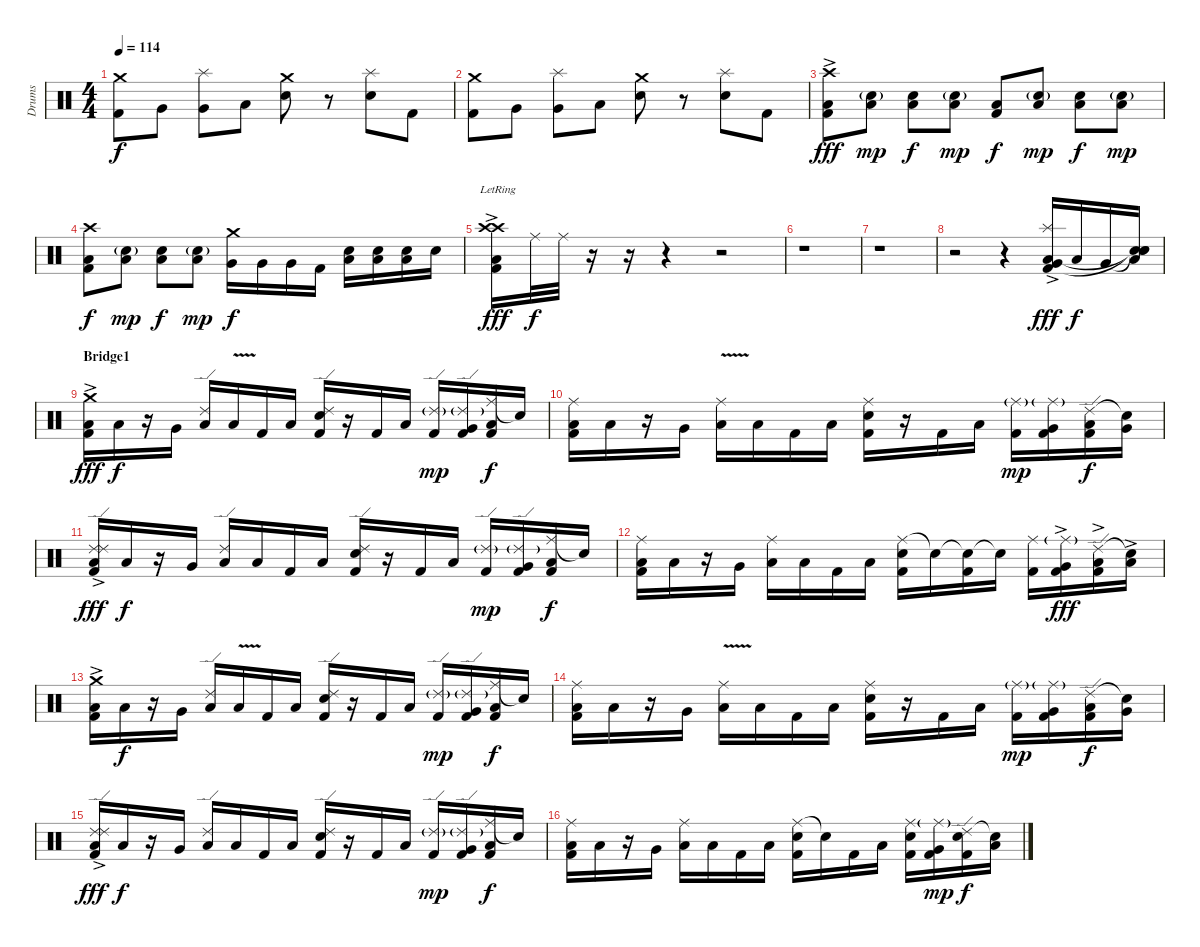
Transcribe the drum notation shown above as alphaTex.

\track ("Drums" "Drums") {instrument percussion}
\staff {score}
\articulation defaults
\ts (4 4)
\tempo 114
\clef neutral
\ks c
("Crash medium (hit)" "Kick (hit) 2").8{dy f} "Very Low Tom (hit)".8 ("Splash (hit)" "Very Low Tom (hit)").8 "Low Floor Tom (hit)".8 ("Crash medium (hit)" "Electric Snare (hit)").8 r.8 ("Splash (hit)" "Electric Snare (hit)").8 "Kick (hit) 2".8 |
("Crash medium (hit)" "Kick (hit) 2").8 "Very Low Tom (hit)".8 ("Splash (hit)" "Very Low Tom (hit)").8 "Low Floor Tom (hit)".8 ("Crash medium (hit)" "Electric Snare (hit)").8 r.8 ("Splash (hit)" "Electric Snare (hit)").8 "Kick (hit) 2".8 |
("Crash high (hit)"{ac} "Kick (hit) 2" "Low Floor Tom (hit)").8{dy fff} ("Snare (hit) 2"{g} "Low Floor Tom (hit)").8{dy mp} ("Snare (hit) 2" "Low Floor Tom (hit)").8{dy f} ("Snare (hit) 2"{g} "Low Floor Tom (hit)").8{dy mp} ("Kick (hit) 2" "Low Floor Tom (hit)").8{dy f} ("Snare (hit) 2"{g} "Low Floor Tom (hit)").8{dy mp} ("Snare (hit) 2" "Low Floor Tom (hit)").8{dy f} ("Snare (hit) 2"{g} "Low Floor Tom (hit)").8{dy mp} |
("Crash high (hit)" "Kick (hit) 2" "Low Floor Tom (hit)").8{dy f} ("Snare (hit) 2"{g} "Low Floor Tom (hit)").8{dy mp} ("Snare (hit) 2" "Low Floor Tom (hit)").8{dy f} ("Snare (hit) 2"{g} "Low Floor Tom (hit)").8{dy mp} ("Crash medium (hit)" "Very Low Tom (hit)").16{dy f} "Very Low Tom (hit)".16 "Very Low Tom (hit)".16 "Kick (hit) 2".16 ("Snare (hit) 2" "Low Floor Tom (hit)").16 ("Snare (hit) 2" "Low Floor Tom (hit)").16 ("Snare (hit) 2" "Low Floor Tom (hit)").16 "Snare (hit) 2".16 |
("Crash high (hit)"{ac lr} "Crash high (hit)"{ac lr} "Low Floor Tom (hit)"{ac lr} "Kick (hit) 2"{ac lr}).16{dy fff} "Ride (middle)".32{dy f} "Ride (middle)".32 r.16 r.16 r.4 r.2 |
r.1 |
r.1 |
r.2 r.4 ("Splash (hit)" "Very Low Tom (hit)"{ac} "Low Floor Tom (hit)"{ac} "Kick (hit) 2"{ac}).16{dy fff} "Low Floor Tom (hit)".16{dy f} "Very Low Tom (hit)".16 ("Snare (hit)"{t} "Low Tom (hit)" "Snare (hit)"{t} "Snare (hit)"{t}).16 |
\section ("" "Bridge1")
("Crash medium (hit)"{ac} "Low Floor Tom (hit)"{ac} "Kick (hit) 2"{ac}).16{dy fff} "Low Floor Tom (hit)".16{dy f} r.16 "Very Low Tom (hit)".16 ("Ride (edge) 2" "Low Floor Tom (hit)").16 "Low Floor Tom (hit)"{v}.16 "Kick (hit) 2".16 "Low Tom (hit)".16 ("Ride (edge) 2" "Electric Snare (hit)" "Kick (hit) 2").16 r.16 "Kick (hit) 2".16 "Low Floor Tom (hit)".16 ("Ride (edge) 2"{g} "Kick (hit) 2").16{dy mp} ("Ride (edge) 2"{g} "Very Low Tom (hit)" "Kick (hit) 2").16 ("Ride (middle)" "Low Tom (hit)" "Kick (hit) 2").16{dy f} "Snare (hit)"{t}.16 |
("Ride (middle)" "Low Floor Tom (hit)" "Kick (hit) 2").16 "Low Floor Tom (hit)".16 r.16 "Very Low Tom (hit)".16 ("Ride (middle)"{v} "Low Floor Tom (hit)").16 "Low Floor Tom (hit)".16 "Kick (hit) 2".16 "Low Tom (hit)".16 ("Ride (middle)" "Electric Snare (hit)" "Kick (hit) 2").16 r.16 "Kick (hit) 2".16 "Low Floor Tom (hit)".16 ("Ride (middle)"{g} "Kick (hit) 2").16{dy mp} ("Ride (middle)"{g} "Very Low Tom (hit)" "Kick (hit) 2").16 ("Ride (edge) 2" "Low Tom (hit)" "Kick (hit) 2").16{dy f} ("Snare (hit)"{t} "Very Low Tom (hit)").16 |
("Ride (edge) 2" "Ride (edge) 2"{ac} "Low Floor Tom (hit)" "Kick (hit) 2"{ac}).16{dy fff} "Low Floor Tom (hit)".16{dy f} r.16 "Very Low Tom (hit)".16 ("Ride (edge) 2" "Low Floor Tom (hit)").16 "Low Floor Tom (hit)".16 "Kick (hit) 2".16 "Low Tom (hit)".16 ("Ride (edge) 2" "Electric Snare (hit)" "Kick (hit) 2").16 r.16 "Kick (hit) 2".16 "Low Floor Tom (hit)".16 ("Ride (edge) 2"{g} "Kick (hit) 2").16{dy mp} ("Ride (edge) 2"{g} "Very Low Tom (hit)" "Kick (hit) 2").16 ("Ride (middle)" "Low Tom (hit)" "Kick (hit) 2").16{dy f} "Snare (hit)"{t}.16 |
("Ride (middle)" "Low Floor Tom (hit)" "Kick (hit) 2").16 "Low Floor Tom (hit)".16 r.16 "Very Low Tom (hit)".16 ("Ride (middle)" "Low Floor Tom (hit)").16 "Low Floor Tom (hit)".16 "Kick (hit) 2".16 "Low Tom (hit)".16 ("Ride (middle)" "Electric Snare (hit)"{tr (40 32)} "Kick (hit) 2").16 "Electric Snare (hit)"{t}.16 ("Snare (hit)"{t} "Kick (hit) 2").16 "Snare (hit)"{t}.16 ("Ride (middle)" "Kick (hit) 2").16 ("Ride (middle)"{g} "Very Low Tom (hit)"{ac} "Kick (hit) 2").16{dy fff} ("Ride (edge) 2" "Low Tom (hit)"{ac} "Kick (hit) 2").16 ("Snare (hit)"{t} "Low Floor Tom (hit)"{ac}).16 |
("Crash medium (hit)"{ac} "Low Floor Tom (hit)"{ac} "Kick (hit) 2"{ac}).16 "Low Floor Tom (hit)".16{dy f} r.16 "Very Low Tom (hit)".16 ("Ride (edge) 2" "Low Floor Tom (hit)").16 "Low Floor Tom (hit)"{v}.16 "Kick (hit) 2".16 "Low Tom (hit)".16 ("Ride (edge) 2" "Electric Snare (hit)" "Kick (hit) 2").16 r.16 "Kick (hit) 2".16 "Low Floor Tom (hit)".16 ("Ride (edge) 2"{g} "Kick (hit) 2").16{dy mp} ("Ride (edge) 2"{g} "Very Low Tom (hit)" "Kick (hit) 2").16 ("Ride (middle)" "Low Tom (hit)" "Kick (hit) 2").16{dy f} "Snare (hit)"{t}.16 |
("Ride (middle)" "Low Floor Tom (hit)" "Kick (hit) 2").16 "Low Floor Tom (hit)".16 r.16 "Very Low Tom (hit)".16 ("Ride (middle)"{v} "Low Floor Tom (hit)").16 "Low Floor Tom (hit)".16 "Kick (hit) 2".16 "Low Tom (hit)".16 ("Ride (middle)" "Electric Snare (hit)" "Kick (hit) 2").16 r.16 "Kick (hit) 2".16 "Low Floor Tom (hit)".16 ("Ride (middle)"{g} "Kick (hit) 2").16{dy mp} ("Ride (middle)"{g} "Very Low Tom (hit)" "Kick (hit) 2").16 ("Ride (edge) 2" "Low Tom (hit)" "Kick (hit) 2").16{dy f} ("Snare (hit)"{t} "Very Low Tom (hit)").16 |
("Ride (edge) 2" "Ride (edge) 2"{ac} "Low Floor Tom (hit)" "Kick (hit) 2"{ac}).16{dy fff} "Low Floor Tom (hit)".16{dy f} r.16 "Very Low Tom (hit)".16 ("Ride (edge) 2" "Low Floor Tom (hit)").16 "Low Floor Tom (hit)".16 "Kick (hit) 2".16 "Low Tom (hit)".16 ("Ride (edge) 2" "Electric Snare (hit)" "Kick (hit) 2").16 r.16 "Kick (hit) 2".16 "Low Floor Tom (hit)".16 ("Ride (edge) 2"{g} "Kick (hit) 2").16{dy mp} ("Ride (edge) 2"{g} "Very Low Tom (hit)" "Kick (hit) 2").16 ("Ride (middle)" "Low Tom (hit)" "Kick (hit) 2").16{dy f} "Snare (hit)"{t}.16 |
("Ride (middle)" "Low Floor Tom (hit)" "Kick (hit) 2").16 "Low Floor Tom (hit)".16 r.16 "Very Low Tom (hit)".16 ("Ride (middle)" "Low Floor Tom (hit)").16 "Low Floor Tom (hit)".16 "Kick (hit) 2".16 "Low Tom (hit)".16 ("Ride (middle)" "Electric Snare (hit)"{tr (40 32)} "Kick (hit) 2").16 "Electric Snare (hit)"{t}.16 "Kick (hit) 2".16 "Low Floor Tom (hit)".16 ("Ride (middle)" "Electric Snare (hit)" "Kick (hit) 2").16 ("Ride (middle)"{g} "Very Low Tom (hit)" "Kick (hit) 2").16{dy mp} ("Ride (edge) 2" "Electric Snare (hit)" "Kick (hit) 2").16{dy f} ("Snare (hit)"{t} "Low Floor Tom (hit)").16
